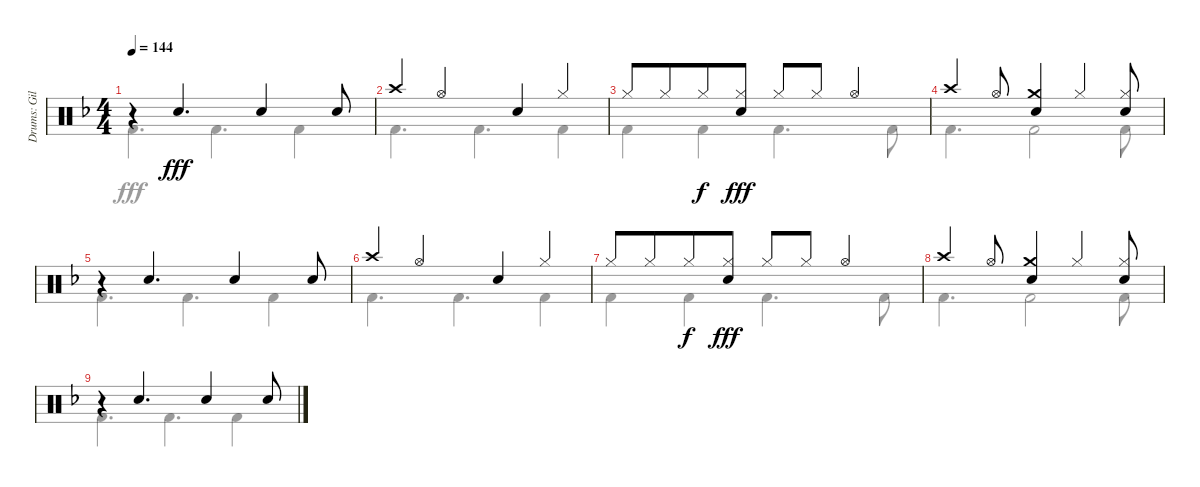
\track ("Drums: Gil" "Drums: Gil") {instrument percussion}
\staff {score}
\articulation defaults
\voice
\ts (4 4)
\tempo 144
\clef neutral
\ks f
r.4{dy fff} "Snare (hit) 2".4{d} "Snare (hit) 2".4 "Snare (hit) 2".8 |
"Crash high (hit)".4 "Hi-Hat (open)".4 "Snare (hit) 2".4 "Hi-Hat (closed)".4 |
"Hi-Hat (closed)".8 "Hi-Hat (closed)".8{beam merge} "Hi-Hat (closed)".8{dy f} ("Hi-Hat (closed)" "Snare (hit) 2").8{dy fff} "Hi-Hat (closed)".8 "Hi-Hat (closed)".8 "Hi-Hat (open)".4 |
"Crash high (hit)".4 "Hi-Hat (open)".8 ("Crash medium (hit)" "Snare (hit) 2").4 "Hi-Hat (closed)".4 ("Hi-Hat (closed)" "Snare (hit) 2").8 |
r.4 "Snare (hit) 2".4{d} "Snare (hit) 2".4 "Snare (hit) 2".8 |
"Crash high (hit)".4 "Hi-Hat (open)".4 "Snare (hit) 2".4 "Hi-Hat (closed)".4 |
"Hi-Hat (closed)".8 "Hi-Hat (closed)".8{beam merge} "Hi-Hat (closed)".8{dy f} ("Hi-Hat (closed)" "Snare (hit) 2").8{dy fff} "Hi-Hat (closed)".8 "Hi-Hat (closed)".8 "Hi-Hat (open)".4 |
"Crash high (hit)".4 "Hi-Hat (open)".8 ("Crash medium (hit)" "Snare (hit) 2").4 "Hi-Hat (closed)".4 ("Hi-Hat (closed)" "Snare (hit) 2").8 |
r.4 "Snare (hit) 2".4{d} "Snare (hit) 2".4 "Snare (hit) 2".8
\voice
\clef neutral
\ottava regular
\simile none
\ks f "Kick (hit) 2".4{d dy fff} "Kick (hit) 2".4{d} "Kick (hit) 2".4
|
"Kick (hit) 2".4{d} "Kick (hit) 2".4{d} "Kick (hit) 2".4 |
"Kick (hit) 2".4 "Kick (hit) 2".4 "Kick (hit) 2".4{d} "Kick (hit) 2".8 |
"Kick (hit) 2".4{d} "Kick (hit) 2".2 "Kick (hit) 2".8 |
"Kick (hit) 2".4{d} "Kick (hit) 2".4{d} "Kick (hit) 2".4 |
"Kick (hit) 2".4{d} "Kick (hit) 2".4{d} "Kick (hit) 2".4 |
"Kick (hit) 2".4 "Kick (hit) 2".4 "Kick (hit) 2".4{d} "Kick (hit) 2".8 |
"Kick (hit) 2".4{d} "Kick (hit) 2".2 "Kick (hit) 2".8 |
"Kick (hit) 2".4{d} "Kick (hit) 2".4{d} "Kick (hit) 2".4
